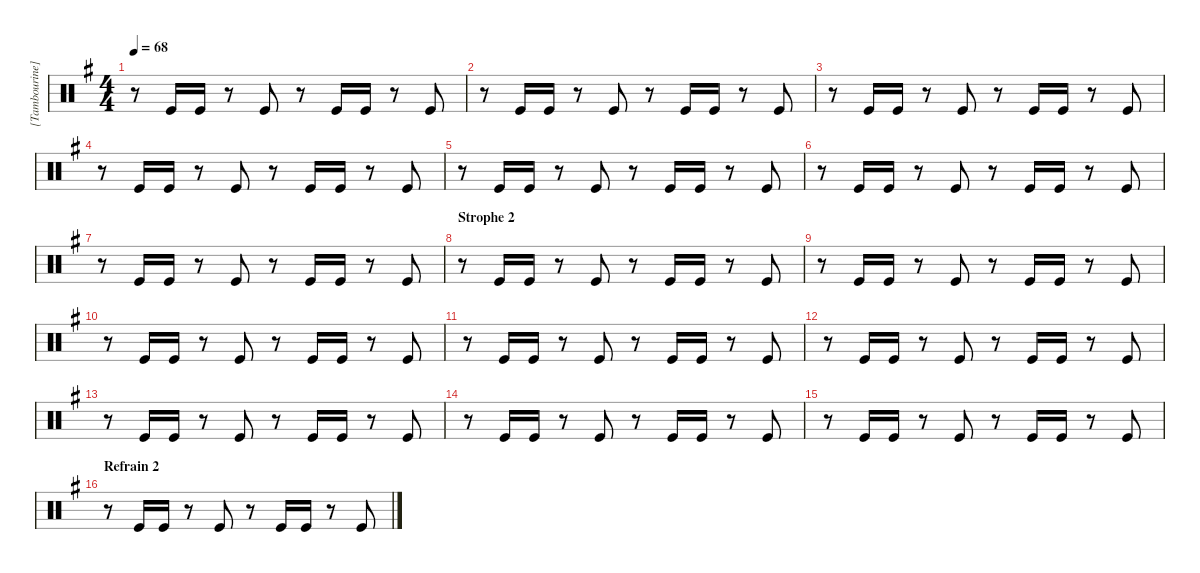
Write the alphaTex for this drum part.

\hideDynamics
\bracketExtendMode groupsimilarinstruments
\firstSystemTrackNameMode fullname
\otherSystemsTrackNameMode fullname
\otherSystemsTrackNameOrientation horizontal
\track ("[Tambourine]" "Tamb.") {instrument percussion}
\staff {score}
\articulation defaults
\ts (4 4)
\tempo 68
\clef neutral
\ks g
r.8{dy f} "Kick (hit)".16 "Kick (hit)".16 r.8 "Kick (hit)".8 r.8 "Kick (hit)".16 "Kick (hit)".16 r.8 "Kick (hit)".8 |
r.8 "Kick (hit)".16 "Kick (hit)".16 r.8 "Kick (hit)".8 r.8 "Kick (hit)".16 "Kick (hit)".16 r.8 "Kick (hit)".8 |
r.8 "Kick (hit)".16 "Kick (hit)".16 r.8 "Kick (hit)".8 r.8 "Kick (hit)".16 "Kick (hit)".16 r.8 "Kick (hit)".8 |
r.8 "Kick (hit)".16 "Kick (hit)".16 r.8 "Kick (hit)".8 r.8 "Kick (hit)".16 "Kick (hit)".16 r.8 "Kick (hit)".8 |
r.8 "Kick (hit)".16 "Kick (hit)".16 r.8 "Kick (hit)".8 r.8 "Kick (hit)".16 "Kick (hit)".16 r.8 "Kick (hit)".8 |
r.8 "Kick (hit)".16 "Kick (hit)".16 r.8 "Kick (hit)".8 r.8 "Kick (hit)".16 "Kick (hit)".16 r.8 "Kick (hit)".8 |
r.8 "Kick (hit)".16 "Kick (hit)".16 r.8 "Kick (hit)".8 r.8 "Kick (hit)".16 "Kick (hit)".16 r.8 "Kick (hit)".8 |
\section ("" "Strophe 2")
r.8 "Kick (hit)".16 "Kick (hit)".16 r.8 "Kick (hit)".8 r.8 "Kick (hit)".16 "Kick (hit)".16 r.8 "Kick (hit)".8 |
r.8 "Kick (hit)".16 "Kick (hit)".16 r.8 "Kick (hit)".8 r.8 "Kick (hit)".16 "Kick (hit)".16 r.8 "Kick (hit)".8 |
r.8 "Kick (hit)".16 "Kick (hit)".16 r.8 "Kick (hit)".8 r.8 "Kick (hit)".16 "Kick (hit)".16 r.8 "Kick (hit)".8 |
r.8 "Kick (hit)".16 "Kick (hit)".16 r.8 "Kick (hit)".8 r.8 "Kick (hit)".16 "Kick (hit)".16 r.8 "Kick (hit)".8 |
r.8 "Kick (hit)".16 "Kick (hit)".16 r.8 "Kick (hit)".8 r.8 "Kick (hit)".16 "Kick (hit)".16 r.8 "Kick (hit)".8 |
r.8 "Kick (hit)".16 "Kick (hit)".16 r.8 "Kick (hit)".8 r.8 "Kick (hit)".16 "Kick (hit)".16 r.8 "Kick (hit)".8 |
r.8 "Kick (hit)".16 "Kick (hit)".16 r.8 "Kick (hit)".8 r.8 "Kick (hit)".16 "Kick (hit)".16 r.8 "Kick (hit)".8 |
r.8 "Kick (hit)".16 "Kick (hit)".16 r.8 "Kick (hit)".8 r.8 "Kick (hit)".16 "Kick (hit)".16 r.8 "Kick (hit)".8 |
\section ("" "Refrain 2")
r.8 "Kick (hit)".16 "Kick (hit)".16 r.8 "Kick (hit)".8 r.8 "Kick (hit)".16 "Kick (hit)".16 r.8 "Kick (hit)".8
